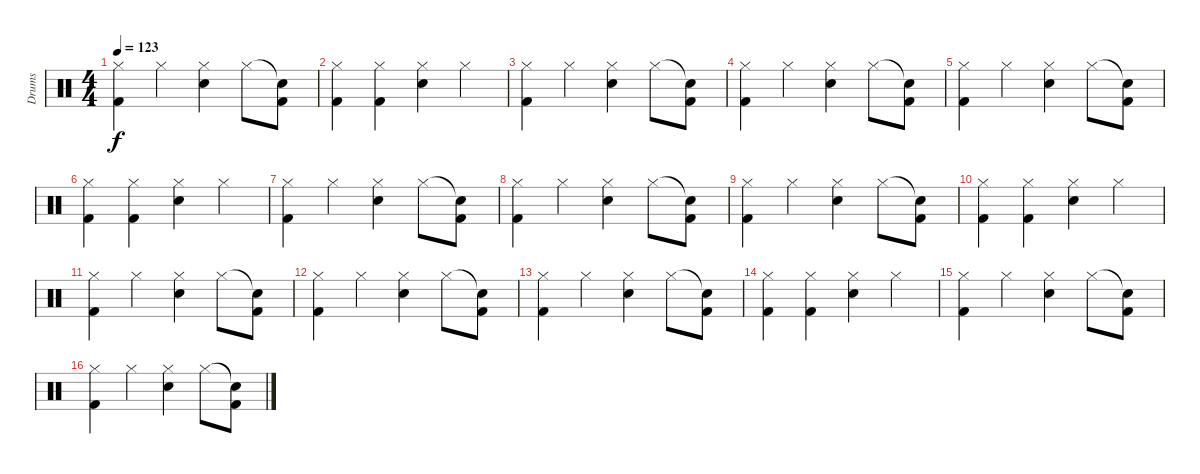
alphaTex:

\track ("Drums" "Drums") {instrument percussion}
\staff {score}
\articulation defaults
\ts (4 4)
\tempo 123
\clef neutral
\ks c
("Hi-Hat (closed)" "Kick (hit) 2").4{dy f} "Hi-Hat (closed)".4 ("Hi-Hat (closed)" "Electric Snare (hit)").4 "Hi-Hat (closed)".8 ("Snare (hit)"{t} "Kick (hit) 2").8 |
("Hi-Hat (closed)" "Kick (hit) 2").4 ("Hi-Hat (closed)" "Kick (hit) 2").4 ("Hi-Hat (closed)" "Electric Snare (hit)").4 "Hi-Hat (closed)".4 |
("Hi-Hat (closed)" "Kick (hit) 2").4 "Hi-Hat (closed)".4 ("Hi-Hat (closed)" "Electric Snare (hit)").4 "Hi-Hat (closed)".8 ("Snare (hit)"{t} "Kick (hit) 2").8 |
("Hi-Hat (closed)" "Kick (hit) 2").4 "Hi-Hat (closed)".4 ("Hi-Hat (closed)" "Electric Snare (hit)").4 "Hi-Hat (closed)".8 ("Snare (hit)"{t} "Kick (hit) 2").8 |
("Hi-Hat (closed)" "Kick (hit) 2").4 "Hi-Hat (closed)".4 ("Hi-Hat (closed)" "Electric Snare (hit)").4 "Hi-Hat (closed)".8 ("Snare (hit)"{t} "Kick (hit) 2").8 |
("Hi-Hat (closed)" "Kick (hit) 2").4 ("Hi-Hat (closed)" "Kick (hit) 2").4 ("Hi-Hat (closed)" "Electric Snare (hit)").4 "Hi-Hat (closed)".4 |
("Hi-Hat (closed)" "Kick (hit) 2").4 "Hi-Hat (closed)".4 ("Hi-Hat (closed)" "Electric Snare (hit)").4 "Hi-Hat (closed)".8 ("Snare (hit)"{t} "Kick (hit) 2").8 |
("Hi-Hat (closed)" "Kick (hit) 2").4 "Hi-Hat (closed)".4 ("Hi-Hat (closed)" "Electric Snare (hit)").4 "Hi-Hat (closed)".8 ("Snare (hit)"{t} "Kick (hit) 2").8 |
("Hi-Hat (closed)" "Kick (hit) 2").4 "Hi-Hat (closed)".4 ("Hi-Hat (closed)" "Electric Snare (hit)").4 "Hi-Hat (closed)".8 ("Snare (hit)"{t} "Kick (hit) 2").8 |
("Hi-Hat (closed)" "Kick (hit) 2").4 ("Hi-Hat (closed)" "Kick (hit) 2").4 ("Hi-Hat (closed)" "Electric Snare (hit)").4 "Hi-Hat (closed)".4 |
("Hi-Hat (closed)" "Kick (hit) 2").4 "Hi-Hat (closed)".4 ("Hi-Hat (closed)" "Electric Snare (hit)").4 "Hi-Hat (closed)".8 ("Snare (hit)"{t} "Kick (hit) 2").8 |
("Hi-Hat (closed)" "Kick (hit) 2").4 "Hi-Hat (closed)".4 ("Hi-Hat (closed)" "Electric Snare (hit)").4 "Hi-Hat (closed)".8 ("Snare (hit)"{t} "Kick (hit) 2").8 |
("Hi-Hat (closed)" "Kick (hit) 2").4 "Hi-Hat (closed)".4 ("Hi-Hat (closed)" "Electric Snare (hit)").4 "Hi-Hat (closed)".8 ("Snare (hit)"{t} "Kick (hit) 2").8 |
("Hi-Hat (closed)" "Kick (hit) 2").4 ("Hi-Hat (closed)" "Kick (hit) 2").4 ("Hi-Hat (closed)" "Electric Snare (hit)").4 "Hi-Hat (closed)".4 |
("Hi-Hat (closed)" "Kick (hit) 2").4 "Hi-Hat (closed)".4 ("Hi-Hat (closed)" "Electric Snare (hit)").4 "Hi-Hat (closed)".8 ("Snare (hit)"{t} "Kick (hit) 2").8 |
("Hi-Hat (closed)" "Kick (hit) 2").4 "Hi-Hat (closed)".4 ("Hi-Hat (closed)" "Electric Snare (hit)").4 "Hi-Hat (closed)".8 ("Snare (hit)"{t} "Kick (hit) 2").8
